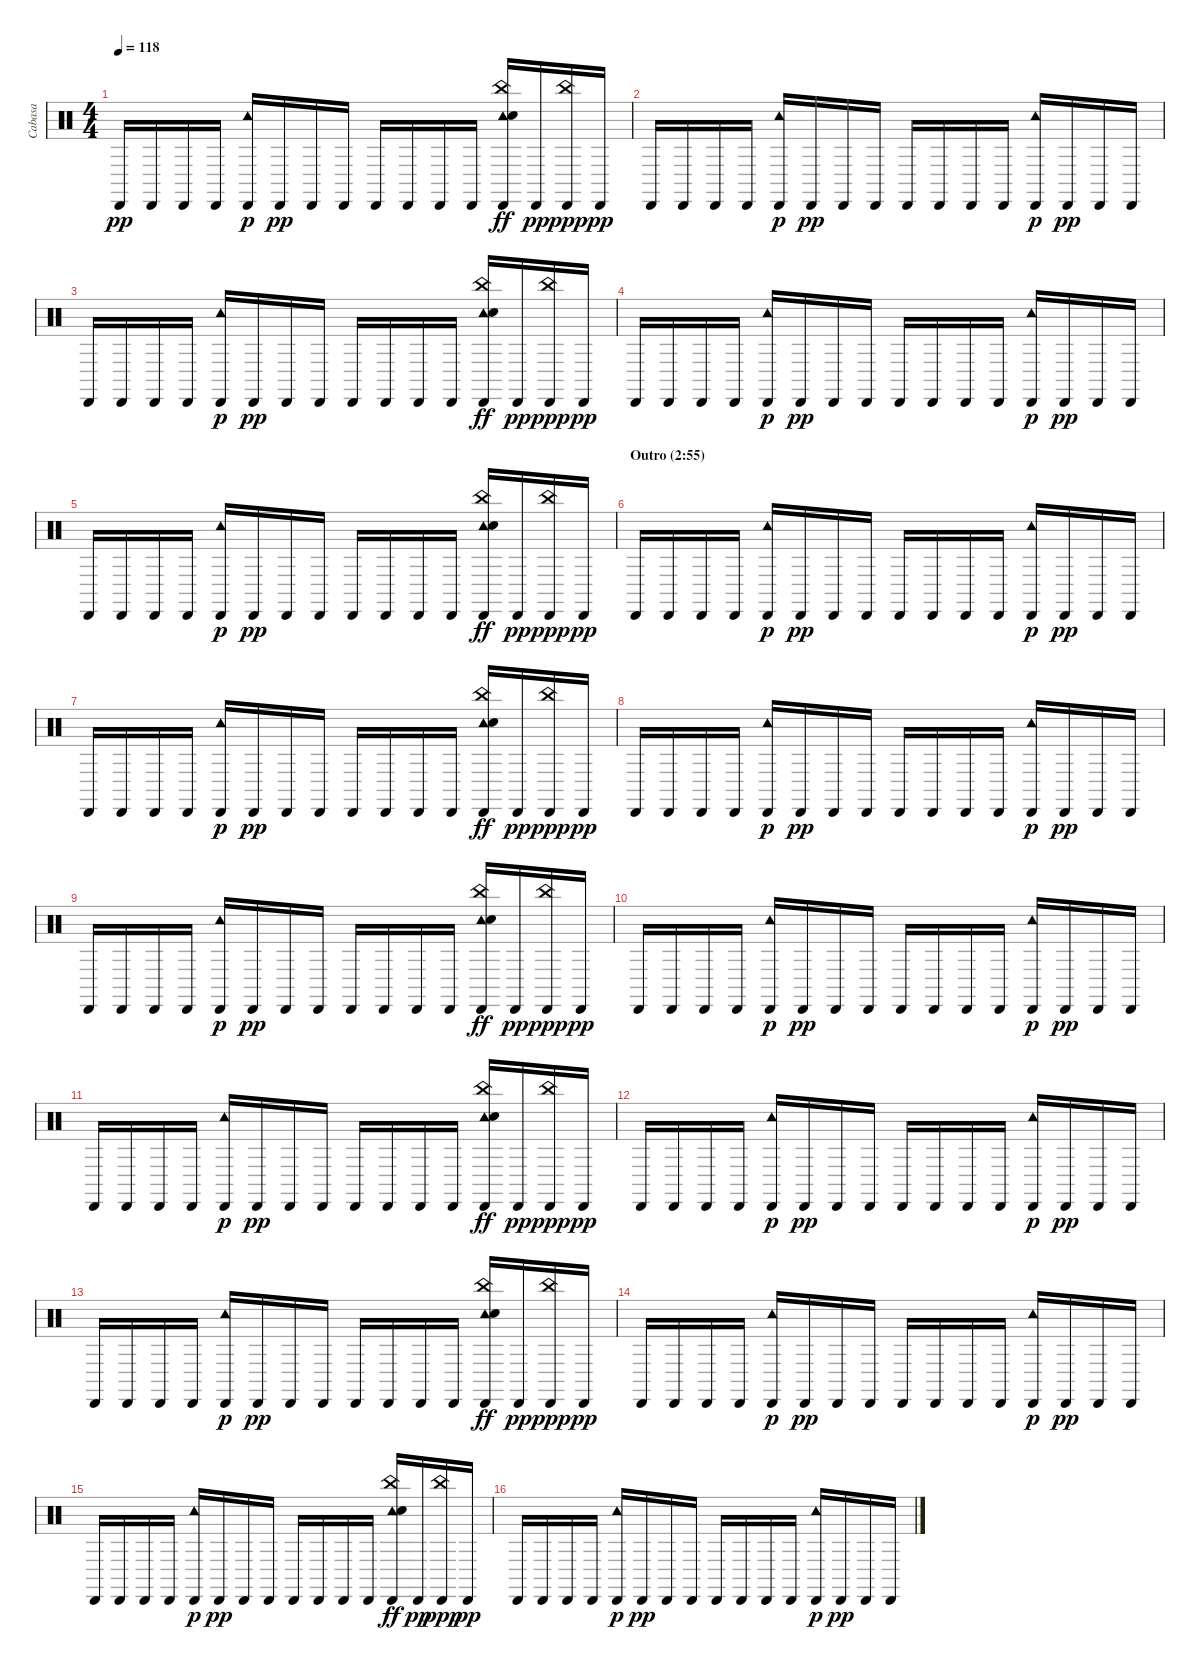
\track ("Cabasa" "Cabasa") {instrument percussion}
\staff {score}
\articulation defaults
\ts (4 4)
\tempo 118
\clef neutral
\ks c "Cabasa (hit)".16{dy pp} "Cabasa (hit)".16 "Cabasa (hit)".16 "Cabasa (hit)".16
("Cabasa (hit)" "Tambourine (hit)").16{dy p} "Cabasa (hit)".16{dy pp} "Cabasa (hit)".16 "Cabasa (hit)".16 "Cabasa (hit)".16 "Cabasa (hit)".16 "Cabasa (hit)".16 "Cabasa (hit)".16 ("Cabasa (hit)" "Tambourine (hit)" "Hand Clap (hit)" "China (hit)").16{dy ff} "Cabasa (hit)".16{dy pp} ("Cabasa (hit)" "China (hit)").16{dy ppp} "Cabasa (hit)".16{dy pp} |
"Cabasa (hit)".16 "Cabasa (hit)".16 "Cabasa (hit)".16 "Cabasa (hit)".16 ("Cabasa (hit)" "Tambourine (hit)").16{dy p} "Cabasa (hit)".16{dy pp} "Cabasa (hit)".16 "Cabasa (hit)".16 "Cabasa (hit)".16 "Cabasa (hit)".16 "Cabasa (hit)".16 "Cabasa (hit)".16 ("Cabasa (hit)" "Tambourine (hit)").16{dy p} "Cabasa (hit)".16{dy pp} "Cabasa (hit)".16 "Cabasa (hit)".16 |
"Cabasa (hit)".16 "Cabasa (hit)".16 "Cabasa (hit)".16 "Cabasa (hit)".16 ("Cabasa (hit)" "Tambourine (hit)").16{dy p} "Cabasa (hit)".16{dy pp} "Cabasa (hit)".16 "Cabasa (hit)".16 "Cabasa (hit)".16 "Cabasa (hit)".16 "Cabasa (hit)".16 "Cabasa (hit)".16 ("Cabasa (hit)" "Tambourine (hit)" "Hand Clap (hit)" "China (hit)").16{dy ff} "Cabasa (hit)".16{dy pp} ("Cabasa (hit)" "China (hit)").16{dy ppp} "Cabasa (hit)".16{dy pp} |
"Cabasa (hit)".16 "Cabasa (hit)".16 "Cabasa (hit)".16 "Cabasa (hit)".16 ("Cabasa (hit)" "Tambourine (hit)").16{dy p} "Cabasa (hit)".16{dy pp} "Cabasa (hit)".16 "Cabasa (hit)".16 "Cabasa (hit)".16 "Cabasa (hit)".16 "Cabasa (hit)".16 "Cabasa (hit)".16 ("Cabasa (hit)" "Tambourine (hit)").16{dy p} "Cabasa (hit)".16{dy pp} "Cabasa (hit)".16 "Cabasa (hit)".16 |
"Cabasa (hit)".16 "Cabasa (hit)".16 "Cabasa (hit)".16 "Cabasa (hit)".16 ("Cabasa (hit)" "Tambourine (hit)").16{dy p} "Cabasa (hit)".16{dy pp} "Cabasa (hit)".16 "Cabasa (hit)".16 "Cabasa (hit)".16 "Cabasa (hit)".16 "Cabasa (hit)".16 "Cabasa (hit)".16 ("Cabasa (hit)" "Tambourine (hit)" "Hand Clap (hit)" "China (hit)").16{dy ff} "Cabasa (hit)".16{dy pp} ("Cabasa (hit)" "China (hit)").16{dy ppp} "Cabasa (hit)".16{dy pp} |
\section ("" "Outro (2:55)")
"Cabasa (hit)".16 "Cabasa (hit)".16 "Cabasa (hit)".16 "Cabasa (hit)".16 ("Cabasa (hit)" "Tambourine (hit)").16{dy p} "Cabasa (hit)".16{dy pp} "Cabasa (hit)".16 "Cabasa (hit)".16 "Cabasa (hit)".16 "Cabasa (hit)".16 "Cabasa (hit)".16 "Cabasa (hit)".16 ("Cabasa (hit)" "Tambourine (hit)").16{dy p} "Cabasa (hit)".16{dy pp} "Cabasa (hit)".16 "Cabasa (hit)".16 |
"Cabasa (hit)".16 "Cabasa (hit)".16 "Cabasa (hit)".16 "Cabasa (hit)".16 ("Cabasa (hit)" "Tambourine (hit)").16{dy p} "Cabasa (hit)".16{dy pp} "Cabasa (hit)".16 "Cabasa (hit)".16 "Cabasa (hit)".16 "Cabasa (hit)".16 "Cabasa (hit)".16 "Cabasa (hit)".16 ("Cabasa (hit)" "Tambourine (hit)" "Hand Clap (hit)" "China (hit)").16{dy ff} "Cabasa (hit)".16{dy pp} ("Cabasa (hit)" "China (hit)").16{dy ppp} "Cabasa (hit)".16{dy pp} |
"Cabasa (hit)".16 "Cabasa (hit)".16 "Cabasa (hit)".16 "Cabasa (hit)".16 ("Cabasa (hit)" "Tambourine (hit)").16{dy p} "Cabasa (hit)".16{dy pp} "Cabasa (hit)".16 "Cabasa (hit)".16 "Cabasa (hit)".16 "Cabasa (hit)".16 "Cabasa (hit)".16 "Cabasa (hit)".16 ("Cabasa (hit)" "Tambourine (hit)").16{dy p} "Cabasa (hit)".16{dy pp} "Cabasa (hit)".16 "Cabasa (hit)".16 |
"Cabasa (hit)".16 "Cabasa (hit)".16 "Cabasa (hit)".16 "Cabasa (hit)".16 ("Cabasa (hit)" "Tambourine (hit)").16{dy p} "Cabasa (hit)".16{dy pp} "Cabasa (hit)".16 "Cabasa (hit)".16 "Cabasa (hit)".16 "Cabasa (hit)".16 "Cabasa (hit)".16 "Cabasa (hit)".16 ("Cabasa (hit)" "Tambourine (hit)" "Hand Clap (hit)" "China (hit)").16{dy ff} "Cabasa (hit)".16{dy pp} ("Cabasa (hit)" "China (hit)").16{dy ppp} "Cabasa (hit)".16{dy pp} |
"Cabasa (hit)".16 "Cabasa (hit)".16 "Cabasa (hit)".16 "Cabasa (hit)".16 ("Cabasa (hit)" "Tambourine (hit)").16{dy p} "Cabasa (hit)".16{dy pp} "Cabasa (hit)".16 "Cabasa (hit)".16 "Cabasa (hit)".16 "Cabasa (hit)".16 "Cabasa (hit)".16 "Cabasa (hit)".16 ("Cabasa (hit)" "Tambourine (hit)").16{dy p} "Cabasa (hit)".16{dy pp} "Cabasa (hit)".16 "Cabasa (hit)".16 |
"Cabasa (hit)".16 "Cabasa (hit)".16 "Cabasa (hit)".16 "Cabasa (hit)".16 ("Cabasa (hit)" "Tambourine (hit)").16{dy p} "Cabasa (hit)".16{dy pp} "Cabasa (hit)".16 "Cabasa (hit)".16 "Cabasa (hit)".16 "Cabasa (hit)".16 "Cabasa (hit)".16 "Cabasa (hit)".16 ("Cabasa (hit)" "Tambourine (hit)" "Hand Clap (hit)" "China (hit)").16{dy ff} "Cabasa (hit)".16{dy pp} ("Cabasa (hit)" "China (hit)").16{dy ppp} "Cabasa (hit)".16{dy pp} |
"Cabasa (hit)".16 "Cabasa (hit)".16 "Cabasa (hit)".16 "Cabasa (hit)".16 ("Cabasa (hit)" "Tambourine (hit)").16{dy p} "Cabasa (hit)".16{dy pp} "Cabasa (hit)".16 "Cabasa (hit)".16 "Cabasa (hit)".16 "Cabasa (hit)".16 "Cabasa (hit)".16 "Cabasa (hit)".16 ("Cabasa (hit)" "Tambourine (hit)").16{dy p} "Cabasa (hit)".16{dy pp} "Cabasa (hit)".16 "Cabasa (hit)".16 |
"Cabasa (hit)".16 "Cabasa (hit)".16 "Cabasa (hit)".16 "Cabasa (hit)".16 ("Cabasa (hit)" "Tambourine (hit)").16{dy p} "Cabasa (hit)".16{dy pp} "Cabasa (hit)".16 "Cabasa (hit)".16 "Cabasa (hit)".16 "Cabasa (hit)".16 "Cabasa (hit)".16 "Cabasa (hit)".16 ("Cabasa (hit)" "Tambourine (hit)" "Hand Clap (hit)" "China (hit)").16{dy ff} "Cabasa (hit)".16{dy pp} ("Cabasa (hit)" "China (hit)").16{dy ppp} "Cabasa (hit)".16{dy pp} |
"Cabasa (hit)".16 "Cabasa (hit)".16 "Cabasa (hit)".16 "Cabasa (hit)".16 ("Cabasa (hit)" "Tambourine (hit)").16{dy p} "Cabasa (hit)".16{dy pp} "Cabasa (hit)".16 "Cabasa (hit)".16 "Cabasa (hit)".16 "Cabasa (hit)".16 "Cabasa (hit)".16 "Cabasa (hit)".16 ("Cabasa (hit)" "Tambourine (hit)").16{dy p} "Cabasa (hit)".16{dy pp} "Cabasa (hit)".16 "Cabasa (hit)".16 |
"Cabasa (hit)".16 "Cabasa (hit)".16 "Cabasa (hit)".16 "Cabasa (hit)".16 ("Cabasa (hit)" "Tambourine (hit)").16{dy p} "Cabasa (hit)".16{dy pp} "Cabasa (hit)".16 "Cabasa (hit)".16 "Cabasa (hit)".16 "Cabasa (hit)".16 "Cabasa (hit)".16 "Cabasa (hit)".16 ("Cabasa (hit)" "Tambourine (hit)" "Hand Clap (hit)" "China (hit)").16{dy ff} "Cabasa (hit)".16{dy pp} ("Cabasa (hit)" "China (hit)").16{dy ppp} "Cabasa (hit)".16{dy pp} |
"Cabasa (hit)".16 "Cabasa (hit)".16 "Cabasa (hit)".16 "Cabasa (hit)".16 ("Cabasa (hit)" "Tambourine (hit)").16{dy p} "Cabasa (hit)".16{dy pp} "Cabasa (hit)".16 "Cabasa (hit)".16 "Cabasa (hit)".16 "Cabasa (hit)".16 "Cabasa (hit)".16 "Cabasa (hit)".16 ("Cabasa (hit)" "Tambourine (hit)").16{dy p} "Cabasa (hit)".16{dy pp} "Cabasa (hit)".16 "Cabasa (hit)".16
